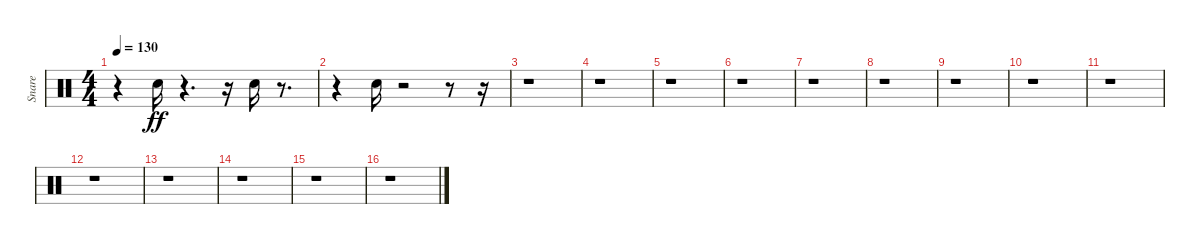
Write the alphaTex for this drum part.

\track ("Snare" "Snare") {instrument percussion}
\staff {score}
\articulation defaults
\ts (4 4)
\tempo 130
\clef neutral
\ks c
r.4{dy ff} "Snare (hit) 2".16 r.4{d} r.16 "Snare (hit) 2".16 r.8{d} |
r.4 "Snare (hit) 2".16 r.2 r.8 r.16 |
r.1 |
r.1 |
r.1 |
r.1 |
r.1 |
r.1 |
r.1 |
r.1 |
r.1 |
r.1 |
r.1 |
r.1 |
r.1 |
r.1
